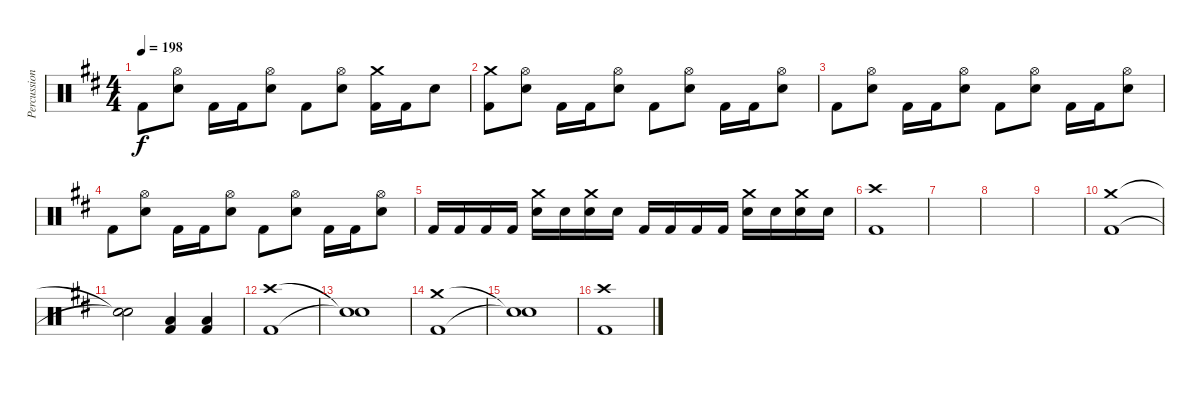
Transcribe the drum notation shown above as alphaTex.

\track ("Percussion" "Percussion") {instrument percussion}
\staff {score}
\articulation defaults
\ts (4 4)
\tempo 198
\clef neutral
\ks bminor "Kick (hit) 2".8{dy f}
("Hi-Hat (open)" "Snare (hit) 2").8 "Kick (hit) 2".16 "Kick (hit) 2".16 ("Hi-Hat (open)" "Snare (hit) 2").8 "Kick (hit) 2".8 ("Hi-Hat (open)" "Snare (hit) 2").8 ("Crash medium (hit)" "Kick (hit) 2").16 "Kick (hit) 2".16 "Snare (hit) 2".8 |
("Crash medium (hit)" "Kick (hit) 2").8 ("Hi-Hat (open)" "Snare (hit) 2").8 "Kick (hit) 2".16 "Kick (hit) 2".16 ("Hi-Hat (open)" "Snare (hit) 2").8 "Kick (hit) 2".8 ("Hi-Hat (open)" "Snare (hit) 2").8 "Kick (hit) 2".16 "Kick (hit) 2".16 ("Hi-Hat (open)" "Snare (hit) 2").8 |
"Kick (hit) 2".8 ("Hi-Hat (open)" "Snare (hit) 2").8 "Kick (hit) 2".16 "Kick (hit) 2".16 ("Hi-Hat (open)" "Snare (hit) 2").8 "Kick (hit) 2".8 ("Hi-Hat (open)" "Snare (hit) 2").8 "Kick (hit) 2".16 "Kick (hit) 2".16 ("Hi-Hat (open)" "Snare (hit) 2").8 |
"Kick (hit) 2".8 ("Hi-Hat (open)" "Snare (hit) 2").8 "Kick (hit) 2".16 "Kick (hit) 2".16 ("Hi-Hat (open)" "Snare (hit) 2").8 "Kick (hit) 2".8 ("Hi-Hat (open)" "Snare (hit) 2").8 "Kick (hit) 2".16 "Kick (hit) 2".16 ("Hi-Hat (open)" "Snare (hit) 2").8 |
"Kick (hit) 2".16 "Kick (hit) 2".16 "Kick (hit) 2".16 "Kick (hit) 2".16 ("Crash medium (hit)" "Snare (hit) 2").16 "Snare (hit) 2".16 ("Crash medium (hit)" "Snare (hit) 2").16 "Snare (hit) 2".16 "Kick (hit) 2".16 "Kick (hit) 2".16 "Kick (hit) 2".16 "Kick (hit) 2".16 ("Crash medium (hit)" "Snare (hit) 2").16 "Snare (hit) 2".16 ("Crash medium (hit)" "Snare (hit) 2").16 "Snare (hit) 2".16 |
("Crash high (hit)" "Kick (hit) 2").1 |
|
|
|
("Crash medium (hit)" "Kick (hit) 2").1 |
("Snare (hit)"{t} "Snare (hit)"{t}).2 ("Low Tom (hit)" "Kick (hit) 2").4 ("Low Tom (hit)" "Kick (hit) 2").4 |
("Crash high (hit)" "Kick (hit) 2").1 |
("Snare (hit)"{t} "Snare (hit)"{t}).1 |
("Crash medium (hit)" "Kick (hit) 2").1 |
("Snare (hit)"{t} "Snare (hit)"{t}).1 |
("Crash high (hit)" "Kick (hit) 2").1
